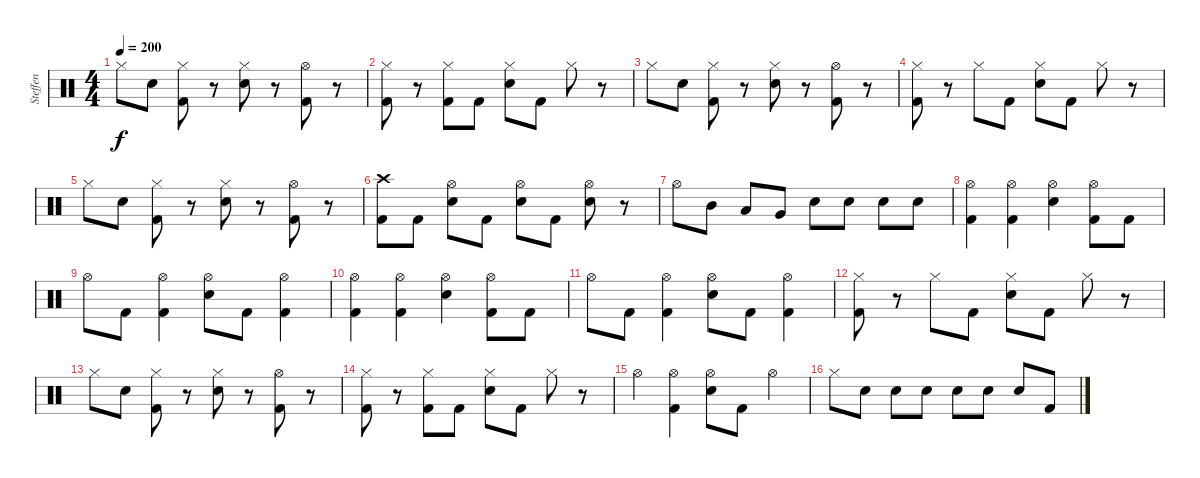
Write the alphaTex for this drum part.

\track ("Steffen" "Steffen") {instrument percussion}
\staff {score}
\articulation defaults
\ts (4 4)
\tempo 200
\clef neutral
\ks c "Hi-Hat (closed)".8{dy f} "Electric Snare (hit)".8
("Hi-Hat (closed)" "Kick (hit) 2").8 r.8 ("Hi-Hat (closed)" "Electric Snare (hit)").8 r.8 ("Hi-Hat (open)" "Kick (hit) 2").8 r.8 |
("Hi-Hat (closed)" "Kick (hit) 2").8 r.8 ("Hi-Hat (closed)" "Kick (hit) 2").8 "Kick (hit) 2".8 ("Hi-Hat (closed)" "Electric Snare (hit)").8 "Kick (hit) 2".8 "Hi-Hat (closed)".8 r.8 |
"Hi-Hat (closed)".8 "Electric Snare (hit)".8 ("Hi-Hat (closed)" "Kick (hit) 2").8 r.8 ("Hi-Hat (closed)" "Electric Snare (hit)").8 r.8 ("Hi-Hat (open)" "Kick (hit) 2").8 r.8 |
("Hi-Hat (closed)" "Kick (hit) 2").8 r.8 "Hi-Hat (closed)".8 "Kick (hit) 2".8 ("Hi-Hat (closed)" "Electric Snare (hit)").8 "Kick (hit) 2".8 "Hi-Hat (closed)".8 r.8 |
"Hi-Hat (closed)".8 "Electric Snare (hit)".8 ("Hi-Hat (closed)" "Kick (hit) 2").8 r.8 ("Hi-Hat (closed)" "Electric Snare (hit)").8 r.8 ("Hi-Hat (open)" "Kick (hit) 2").8 r.8 |
("Crash high (hit)" "Kick (hit) 2").8 "Kick (hit) 2".8 ("Hi-Hat (open)" "Electric Snare (hit)").8 "Kick (hit) 2".8 ("Hi-Hat (open)" "Electric Snare (hit)").8 "Kick (hit) 2".8 ("Hi-Hat (open)" "Electric Snare (hit)").8 r.8 |
"Hi-Hat (open)".8 "Mid Tom (hit)".8 "Low Tom (hit)".8 "Very Low Tom (hit)".8 "Electric Snare (hit)".8 "Electric Snare (hit)".8 "Electric Snare (hit)".8 "Electric Snare (hit)".8 |
("Hi-Hat (open)" "Kick (hit) 2").4 ("Hi-Hat (open)" "Kick (hit) 2").4 ("Hi-Hat (open)" "Electric Snare (hit)").4 ("Hi-Hat (open)" "Kick (hit) 2").8 "Kick (hit) 2".8 |
"Hi-Hat (open)".8 "Kick (hit) 2".8 ("Hi-Hat (open)" "Kick (hit) 2").4 ("Hi-Hat (open)" "Electric Snare (hit)").8 "Kick (hit) 2".8 ("Hi-Hat (open)" "Kick (hit) 2").4 |
("Hi-Hat (open)" "Kick (hit) 2").4 ("Hi-Hat (open)" "Kick (hit) 2").4 ("Hi-Hat (open)" "Electric Snare (hit)").4 ("Hi-Hat (open)" "Kick (hit) 2").8 "Kick (hit) 2".8 |
"Hi-Hat (open)".8 "Kick (hit) 2".8 ("Hi-Hat (open)" "Kick (hit) 2").4 ("Hi-Hat (open)" "Electric Snare (hit)").8 "Kick (hit) 2".8 ("Hi-Hat (open)" "Kick (hit) 2").4 |
("Hi-Hat (closed)" "Kick (hit) 2").8 r.8 "Hi-Hat (closed)".8 "Kick (hit) 2".8 ("Hi-Hat (closed)" "Electric Snare (hit)").8 "Kick (hit) 2".8 "Hi-Hat (closed)".8 r.8 |
"Hi-Hat (closed)".8 "Electric Snare (hit)".8 ("Hi-Hat (closed)" "Kick (hit) 2").8 r.8 ("Hi-Hat (closed)" "Electric Snare (hit)").8 r.8 ("Hi-Hat (open)" "Kick (hit) 2").8 r.8 |
("Hi-Hat (closed)" "Kick (hit) 2").8 r.8 ("Hi-Hat (closed)" "Kick (hit) 2").8 "Kick (hit) 2".8 ("Hi-Hat (closed)" "Electric Snare (hit)").8 "Kick (hit) 2".8 "Hi-Hat (closed)".8 r.8 |
"Hi-Hat (open)".4 ("Hi-Hat (open)" "Kick (hit) 2").4 ("Hi-Hat (open)" "Electric Snare (hit)").8 "Kick (hit) 2".8 "Hi-Hat (open)".4 |
"Hi-Hat (closed)".8 "Electric Snare (hit)".8 "Electric Snare (hit)".8 "Electric Snare (hit)".8 "Electric Snare (hit)".8 "Electric Snare (hit)".8 "Electric Snare (hit)".8 "Kick (hit) 2".8
